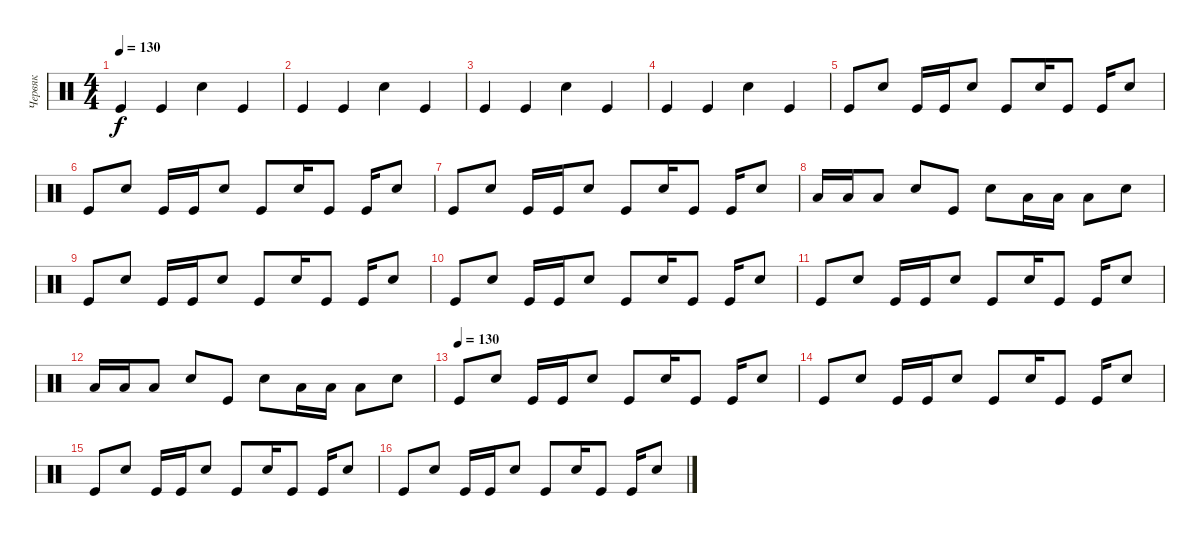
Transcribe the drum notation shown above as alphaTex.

\track ("Червяк" "Червяк") {instrument percussion}
\staff {score}
\articulation defaults
\ts (4 4)
\tempo 130
\clef neutral
\ks c "Kick (hit)".4{dy f} "Kick (hit)".4 "Electric Snare (hit)".4 "Kick (hit)".4
|
"Kick (hit)".4 "Kick (hit)".4 "Electric Snare (hit)".4 "Kick (hit)".4 |
"Kick (hit)".4 "Kick (hit)".4 "Electric Snare (hit)".4 "Kick (hit)".4 |
"Kick (hit)".4 "Kick (hit)".4 "Electric Snare (hit)".4 "Kick (hit)".4 |
"Kick (hit)".8 "Electric Snare (hit)".8 "Kick (hit)".16 "Kick (hit)".16 "Electric Snare (hit)".8 "Kick (hit)".8 "Electric Snare (hit)".16 "Kick (hit)".8 "Kick (hit)".16 "Electric Snare (hit)".8 |
"Kick (hit)".8 "Electric Snare (hit)".8 "Kick (hit)".16 "Kick (hit)".16 "Electric Snare (hit)".8 "Kick (hit)".8 "Electric Snare (hit)".16 "Kick (hit)".8 "Kick (hit)".16 "Electric Snare (hit)".8 |
"Kick (hit)".8 "Electric Snare (hit)".8 "Kick (hit)".16 "Kick (hit)".16 "Electric Snare (hit)".8 "Kick (hit)".8 "Electric Snare (hit)".16 "Kick (hit)".8 "Kick (hit)".16 "Electric Snare (hit)".8 |
"Low Floor Tom (hit)".16 "Low Floor Tom (hit)".16 "Low Floor Tom (hit)".8 "Electric Snare (hit)".8 "Kick (hit)".8 "Electric Snare (hit)".8 "Low Floor Tom (hit)".16 "Low Floor Tom (hit)".16 "Low Floor Tom (hit)".8 "Electric Snare (hit)".8 |
"Kick (hit)".8 "Electric Snare (hit)".8 "Kick (hit)".16 "Kick (hit)".16 "Electric Snare (hit)".8 "Kick (hit)".8 "Electric Snare (hit)".16 "Kick (hit)".8 "Kick (hit)".16 "Electric Snare (hit)".8 |
"Kick (hit)".8 "Electric Snare (hit)".8 "Kick (hit)".16 "Kick (hit)".16 "Electric Snare (hit)".8 "Kick (hit)".8 "Electric Snare (hit)".16 "Kick (hit)".8 "Kick (hit)".16 "Electric Snare (hit)".8 |
"Kick (hit)".8 "Electric Snare (hit)".8 "Kick (hit)".16 "Kick (hit)".16 "Electric Snare (hit)".8 "Kick (hit)".8 "Electric Snare (hit)".16 "Kick (hit)".8 "Kick (hit)".16 "Electric Snare (hit)".8 |
"Low Floor Tom (hit)".16 "Low Floor Tom (hit)".16 "Low Floor Tom (hit)".8 "Electric Snare (hit)".8 "Kick (hit)".8 "Electric Snare (hit)".8 "Low Floor Tom (hit)".16 "Low Floor Tom (hit)".16 "Low Floor Tom (hit)".8 "Electric Snare (hit)".8 |
\tempo (130)
"Kick (hit)".8 "Electric Snare (hit)".8 "Kick (hit)".16 "Kick (hit)".16 "Electric Snare (hit)".8 "Kick (hit)".8 "Electric Snare (hit)".16 "Kick (hit)".8 "Kick (hit)".16 "Electric Snare (hit)".8 |
"Kick (hit)".8 "Electric Snare (hit)".8 "Kick (hit)".16 "Kick (hit)".16 "Electric Snare (hit)".8 "Kick (hit)".8 "Electric Snare (hit)".16 "Kick (hit)".8 "Kick (hit)".16 "Electric Snare (hit)".8 |
"Kick (hit)".8 "Electric Snare (hit)".8 "Kick (hit)".16 "Kick (hit)".16 "Electric Snare (hit)".8 "Kick (hit)".8 "Electric Snare (hit)".16 "Kick (hit)".8 "Kick (hit)".16 "Electric Snare (hit)".8 |
"Kick (hit)".8 "Electric Snare (hit)".8 "Kick (hit)".16 "Kick (hit)".16 "Electric Snare (hit)".8 "Kick (hit)".8 "Electric Snare (hit)".16 "Kick (hit)".8 "Kick (hit)".16 "Electric Snare (hit)".8
